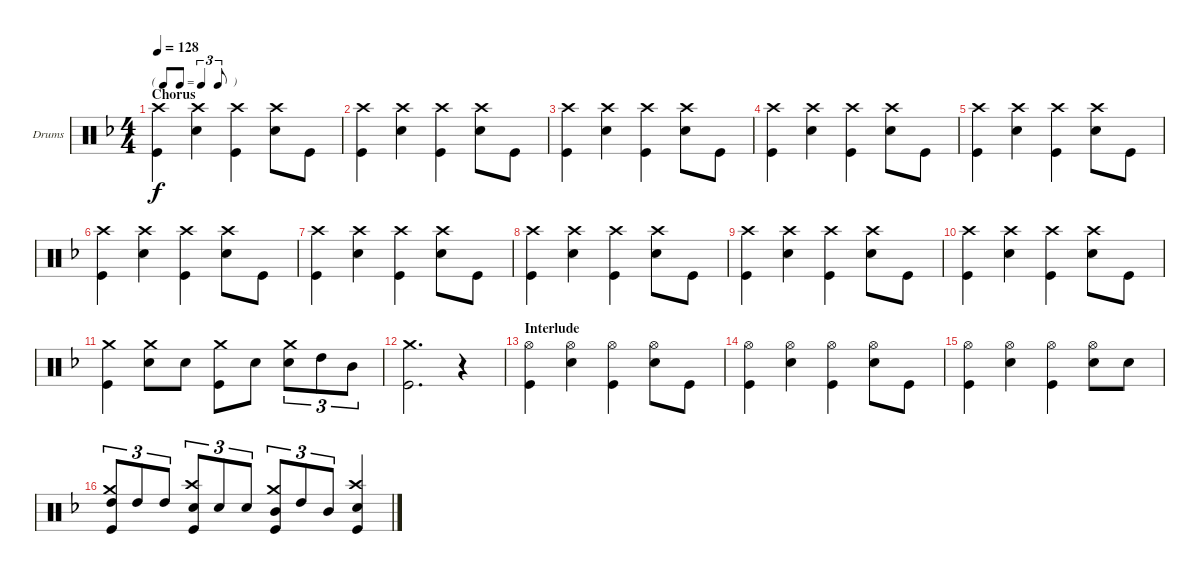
\defaultSystemsLayout 4
\bracketExtendMode groupsimilarinstruments
\firstSystemTrackNameOrientation horizontal
\otherSystemsTrackNameOrientation horizontal
\track ("Drumkit" "Drums") {instrument percussion}
\staff {score}
\articulation defaults
\ts (4 4)
\tf triplet8th
\section ("" "Chorus")
\tempo 128
\clef neutral
\scale
0.333333
\ks f
("Kick (hit)" "Crash high (hit)").4{dy f} ("Snare (hit) 2" "Crash high (hit)").4 ("Kick (hit)" "Crash high (hit)").4 ("Snare (hit) 2" "Crash high (hit)").8 "Kick (hit)".8 |
\scale
0.333333 ("Kick (hit)" "Crash high (hit)").4 ("Snare (hit) 2" "Crash high (hit)").4 ("Kick (hit)" "Crash high (hit)").4 ("Snare (hit) 2" "Crash high (hit)").8 "Kick (hit)".8 |
\scale
0.333333 ("Kick (hit)" "Crash high (hit)").4 ("Snare (hit) 2" "Crash high (hit)").4 ("Kick (hit)" "Crash high (hit)").4 ("Snare (hit) 2" "Crash high (hit)").8 "Kick (hit)".8 |
\scale
0.333333 ("Kick (hit)" "Crash high (hit)").4 ("Snare (hit) 2" "Crash high (hit)").4 ("Kick (hit)" "Crash high (hit)").4 ("Snare (hit) 2" "Crash high (hit)").8 "Kick (hit)".8 |
\scale
0.333333 ("Kick (hit)" "Crash high (hit)").4 ("Snare (hit) 2" "Crash high (hit)").4 ("Kick (hit)" "Crash high (hit)").4 ("Snare (hit) 2" "Crash high (hit)").8 "Kick (hit)".8 |
\scale
0.333333 ("Kick (hit)" "Crash high (hit)").4 ("Snare (hit) 2" "Crash high (hit)").4 ("Kick (hit)" "Crash high (hit)").4 ("Snare (hit) 2" "Crash high (hit)").8 "Kick (hit)".8 |
\scale
0.333333 ("Kick (hit)" "Crash high (hit)").4 ("Snare (hit) 2" "Crash high (hit)").4 ("Kick (hit)" "Crash high (hit)").4 ("Snare (hit) 2" "Crash high (hit)").8 "Kick (hit)".8 |
\scale
0.333333 ("Kick (hit)" "Crash high (hit)").4 ("Snare (hit) 2" "Crash high (hit)").4 ("Kick (hit)" "Crash high (hit)").4 ("Snare (hit) 2" "Crash high (hit)").8 "Kick (hit)".8 |
\scale
0.333333 ("Kick (hit)" "Crash high (hit)").4 ("Snare (hit) 2" "Crash high (hit)").4 ("Kick (hit)" "Crash high (hit)").4 ("Snare (hit) 2" "Crash high (hit)").8 "Kick (hit)".8 |
\scale
0.333333 ("Kick (hit)" "Crash high (hit)").4 ("Snare (hit) 2" "Crash high (hit)").4 ("Kick (hit)" "Crash high (hit)").4 ("Snare (hit) 2" "Crash high (hit)").8 "Kick (hit)".8 |
\scale
0.333333 ("Crash medium (hit)" "Kick (hit)").4 ("Crash medium (hit)" "Snare (hit) 2").8 "Snare (hit) 2".8 ("Crash medium (hit)" "Kick (hit)").8 "Snare (hit) 2".8 ("Snare (hit) 2" "Crash medium (hit)").8{tu (3 2)} "High Tom (hit)".8{tu (3 2)} "Mid Tom (hit)".8{tu (3 2)} |
\scale
0.333333 ("Kick (hit)" "Crash medium (hit)").2{d} r.4 |
\section ("" "Interlude")
\scale
0.333333 ("Kick (hit)" "Hi-Hat (open)").4 ("Snare (hit) 2" "Hi-Hat (open)").4 ("Kick (hit)" "Hi-Hat (open)").4 ("Snare (hit) 2" "Hi-Hat (open)").8 "Kick (hit)".8 |
\scale
0.333333 ("Kick (hit)" "Hi-Hat (open)").4 ("Snare (hit) 2" "Hi-Hat (open)").4 ("Kick (hit)" "Hi-Hat (open)").4 ("Snare (hit) 2" "Hi-Hat (open)").8 "Kick (hit)".8 |
\scale
0.333333 ("Kick (hit)" "Hi-Hat (open)").4 ("Snare (hit) 2" "Hi-Hat (open)").4 ("Kick (hit)" "Hi-Hat (open)").4 ("Snare (hit) 2" "Hi-Hat (open)").8 "Snare (hit) 2".8 |
\scale
0.333333 ("Crash medium (hit)" "High Tom (hit)" "Kick (hit)").8{tu (3 2)} "High Tom (hit)".8{tu (3 2)} "High Tom (hit)".8{tu (3 2)} ("Crash high (hit)" "Snare (hit) 2" "Kick (hit)").8{tu (3 2)} "Snare (hit) 2".8{tu (3 2)} "Snare (hit) 2".8{tu (3 2)} ("Crash medium (hit)" "Mid Tom (hit)" "Kick (hit)").8{tu (3 2)} "High Tom (hit)".8{tu (3 2)} "Mid Tom (hit)".8{tu (3 2)} ("Crash high (hit)" "Snare (hit) 2" "Kick (hit)").4
